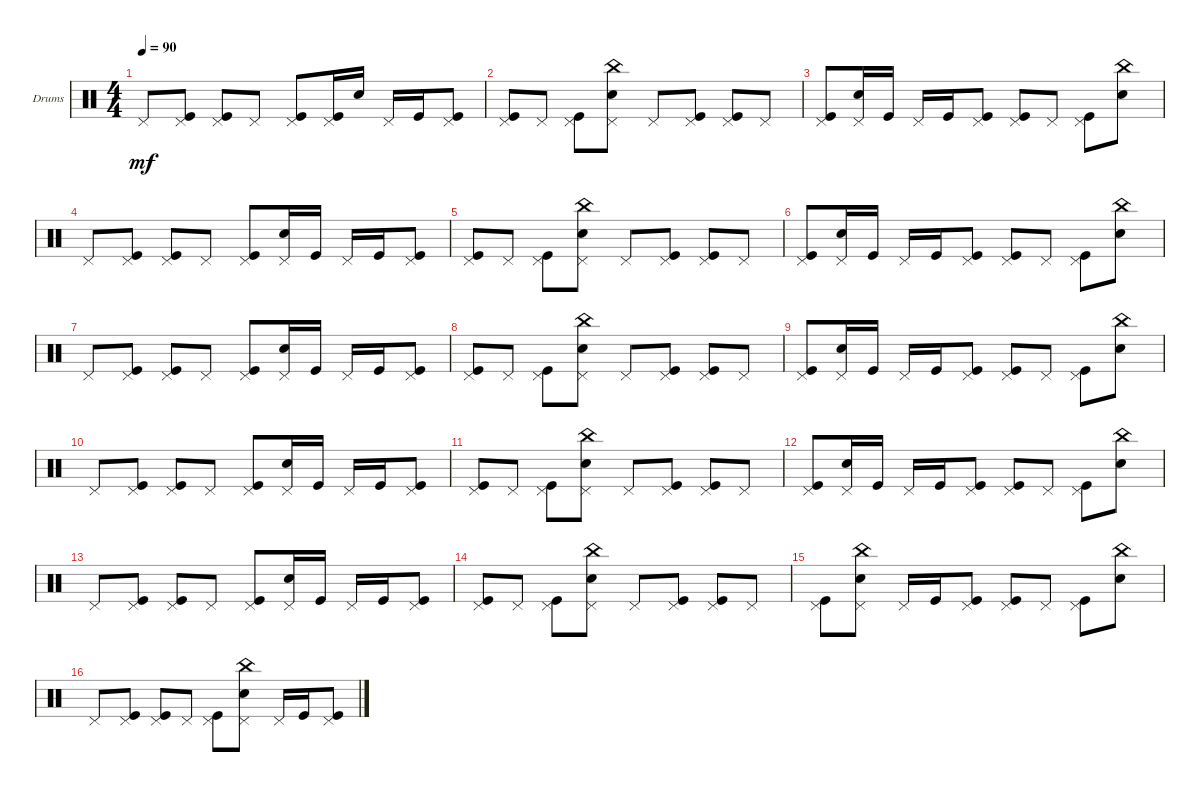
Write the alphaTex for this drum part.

\defaultSystemsLayout 4
\bracketExtendMode groupsimilarinstruments
\firstSystemTrackNameOrientation horizontal
\otherSystemsTrackNameOrientation horizontal
\track ("Drumkit" "Drums") {instrument percussion}
\staff {score}
\articulation defaults
\ts (4 4)
\tempo 90
\clef neutral
\ks c "Pedal Hi-Hat (hit)".8{dy mf}
("Pedal Hi-Hat (hit)" "Kick (hit)").8 ("Kick (hit)" "Pedal Hi-Hat (hit)").8 "Pedal Hi-Hat (hit)".8 ("Pedal Hi-Hat (hit)" "Kick (hit)").8 ("Kick (hit)" "Pedal Hi-Hat (hit)").16 "Snare (hit) 2".16 "Pedal Hi-Hat (hit)".16 "Kick (hit)".16 ("Pedal Hi-Hat (hit)" "Kick (hit)").8 |
("Kick (hit)" "Pedal Hi-Hat (hit)").8 "Pedal Hi-Hat (hit)".8 ("Pedal Hi-Hat (hit)" "Kick (hit)").8 ("Pedal Hi-Hat (hit)" "Snare (hit) 2" "China (hit)").8 "Pedal Hi-Hat (hit)".8 ("Pedal Hi-Hat (hit)" "Kick (hit)").8 ("Pedal Hi-Hat (hit)" "Kick (hit)").8 "Pedal Hi-Hat (hit)".8 |
("Pedal Hi-Hat (hit)" "Kick (hit)").8 ("Pedal Hi-Hat (hit)" "Snare (hit) 2").16 "Kick (hit)".16 "Pedal Hi-Hat (hit)".16 "Kick (hit)".16 ("Pedal Hi-Hat (hit)" "Kick (hit)").8 ("Pedal Hi-Hat (hit)" "Kick (hit)").8 "Pedal Hi-Hat (hit)".8 ("Pedal Hi-Hat (hit)" "Kick (hit)").8 ("Snare (hit) 2" "China (hit)").8 |
"Pedal Hi-Hat (hit)".8 ("Pedal Hi-Hat (hit)" "Kick (hit)").8 ("Pedal Hi-Hat (hit)" "Kick (hit)").8 "Pedal Hi-Hat (hit)".8 ("Pedal Hi-Hat (hit)" "Kick (hit)").8 ("Pedal Hi-Hat (hit)" "Snare (hit) 2").16 "Kick (hit)".16 "Pedal Hi-Hat (hit)".16 "Kick (hit)".16 ("Pedal Hi-Hat (hit)" "Kick (hit)").8 |
("Kick (hit)" "Pedal Hi-Hat (hit)").8 "Pedal Hi-Hat (hit)".8 ("Pedal Hi-Hat (hit)" "Kick (hit)").8 ("Pedal Hi-Hat (hit)" "Snare (hit) 2" "China (hit)").8 "Pedal Hi-Hat (hit)".8 ("Pedal Hi-Hat (hit)" "Kick (hit)").8 ("Pedal Hi-Hat (hit)" "Kick (hit)").8 "Pedal Hi-Hat (hit)".8 |
("Pedal Hi-Hat (hit)" "Kick (hit)").8 ("Pedal Hi-Hat (hit)" "Snare (hit) 2").16 "Kick (hit)".16 "Pedal Hi-Hat (hit)".16 "Kick (hit)".16 ("Pedal Hi-Hat (hit)" "Kick (hit)").8 ("Pedal Hi-Hat (hit)" "Kick (hit)").8 "Pedal Hi-Hat (hit)".8 ("Pedal Hi-Hat (hit)" "Kick (hit)").8 ("Snare (hit) 2" "China (hit)").8 |
"Pedal Hi-Hat (hit)".8 ("Pedal Hi-Hat (hit)" "Kick (hit)").8 ("Pedal Hi-Hat (hit)" "Kick (hit)").8 "Pedal Hi-Hat (hit)".8 ("Pedal Hi-Hat (hit)" "Kick (hit)").8 ("Pedal Hi-Hat (hit)" "Snare (hit) 2").16 "Kick (hit)".16 "Pedal Hi-Hat (hit)".16 "Kick (hit)".16 ("Pedal Hi-Hat (hit)" "Kick (hit)").8 |
("Kick (hit)" "Pedal Hi-Hat (hit)").8 "Pedal Hi-Hat (hit)".8 ("Pedal Hi-Hat (hit)" "Kick (hit)").8 ("Pedal Hi-Hat (hit)" "Snare (hit) 2" "China (hit)").8 "Pedal Hi-Hat (hit)".8 ("Pedal Hi-Hat (hit)" "Kick (hit)").8 ("Pedal Hi-Hat (hit)" "Kick (hit)").8 "Pedal Hi-Hat (hit)".8 |
("Pedal Hi-Hat (hit)" "Kick (hit)").8 ("Pedal Hi-Hat (hit)" "Snare (hit) 2").16 "Kick (hit)".16 "Pedal Hi-Hat (hit)".16 "Kick (hit)".16 ("Pedal Hi-Hat (hit)" "Kick (hit)").8 ("Pedal Hi-Hat (hit)" "Kick (hit)").8 "Pedal Hi-Hat (hit)".8 ("Pedal Hi-Hat (hit)" "Kick (hit)").8 ("Snare (hit) 2" "China (hit)").8 |
"Pedal Hi-Hat (hit)".8 ("Pedal Hi-Hat (hit)" "Kick (hit)").8 ("Pedal Hi-Hat (hit)" "Kick (hit)").8 "Pedal Hi-Hat (hit)".8 ("Pedal Hi-Hat (hit)" "Kick (hit)").8 ("Pedal Hi-Hat (hit)" "Snare (hit) 2").16 "Kick (hit)".16 "Pedal Hi-Hat (hit)".16 "Kick (hit)".16 ("Pedal Hi-Hat (hit)" "Kick (hit)").8 |
("Kick (hit)" "Pedal Hi-Hat (hit)").8 "Pedal Hi-Hat (hit)".8 ("Pedal Hi-Hat (hit)" "Kick (hit)").8 ("Pedal Hi-Hat (hit)" "Snare (hit) 2" "China (hit)").8 "Pedal Hi-Hat (hit)".8 ("Pedal Hi-Hat (hit)" "Kick (hit)").8 ("Pedal Hi-Hat (hit)" "Kick (hit)").8 "Pedal Hi-Hat (hit)".8 |
("Pedal Hi-Hat (hit)" "Kick (hit)").8 ("Pedal Hi-Hat (hit)" "Snare (hit) 2").16 "Kick (hit)".16 "Pedal Hi-Hat (hit)".16 "Kick (hit)".16 ("Pedal Hi-Hat (hit)" "Kick (hit)").8 ("Pedal Hi-Hat (hit)" "Kick (hit)").8 "Pedal Hi-Hat (hit)".8 ("Pedal Hi-Hat (hit)" "Kick (hit)").8 ("Snare (hit) 2" "China (hit)").8 |
"Pedal Hi-Hat (hit)".8 ("Pedal Hi-Hat (hit)" "Kick (hit)").8 ("Pedal Hi-Hat (hit)" "Kick (hit)").8 "Pedal Hi-Hat (hit)".8 ("Pedal Hi-Hat (hit)" "Kick (hit)").8 ("Pedal Hi-Hat (hit)" "Snare (hit) 2").16 "Kick (hit)".16 "Pedal Hi-Hat (hit)".16 "Kick (hit)".16 ("Pedal Hi-Hat (hit)" "Kick (hit)").8 |
("Kick (hit)" "Pedal Hi-Hat (hit)").8 "Pedal Hi-Hat (hit)".8 ("Pedal Hi-Hat (hit)" "Kick (hit)").8 ("Pedal Hi-Hat (hit)" "Snare (hit) 2" "China (hit)").8 "Pedal Hi-Hat (hit)".8 ("Pedal Hi-Hat (hit)" "Kick (hit)").8 ("Pedal Hi-Hat (hit)" "Kick (hit)").8 "Pedal Hi-Hat (hit)".8 |
("Pedal Hi-Hat (hit)" "Kick (hit)").8 ("Pedal Hi-Hat (hit)" "Snare (hit) 2" "China (hit)").8 "Pedal Hi-Hat (hit)".16 "Kick (hit)".16 ("Pedal Hi-Hat (hit)" "Kick (hit)").8 ("Pedal Hi-Hat (hit)" "Kick (hit)").8 "Pedal Hi-Hat (hit)".8 ("Pedal Hi-Hat (hit)" "Kick (hit)").8 ("Snare (hit) 2" "China (hit)").8 |
"Pedal Hi-Hat (hit)".8 ("Pedal Hi-Hat (hit)" "Kick (hit)").8 ("Pedal Hi-Hat (hit)" "Kick (hit)").8 "Pedal Hi-Hat (hit)".8 ("Pedal Hi-Hat (hit)" "Kick (hit)").8 ("Pedal Hi-Hat (hit)" "Snare (hit) 2" "China (hit)").8 "Pedal Hi-Hat (hit)".16 "Kick (hit)".16 ("Pedal Hi-Hat (hit)" "Kick (hit)").8
